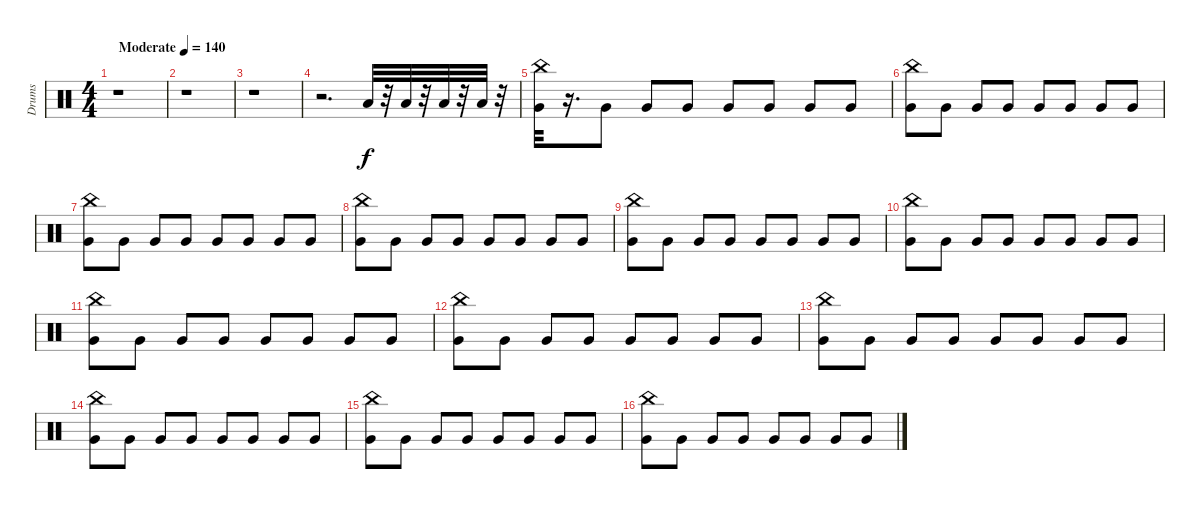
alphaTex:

\track ("Drums" "Drums") {instrument percussion}
\staff {score}
\articulation defaults
\ts (4 4)
\tempo (140 "Moderate")
\clef neutral
\ks c
r.1{dy f} |
r.1 |
r.1 |
r.2{d} "Low Tom (hit)".32 r.32 "Low Tom (hit)".32 r.32 "Low Tom (hit)".32 r.32 "Low Tom (hit)".32 r.32 |
("Very Low Tom (hit)" "China (hit)").32 r.16{d} "Very Low Tom (hit)".8 "Very Low Tom (hit)".8 "Very Low Tom (hit)".8 "Very Low Tom (hit)".8 "Very Low Tom (hit)".8 "Very Low Tom (hit)".8 "Very Low Tom (hit)".8 |
("Very Low Tom (hit)" "China (hit)").8 "Very Low Tom (hit)".8 "Very Low Tom (hit)".8 "Very Low Tom (hit)".8 "Very Low Tom (hit)".8 "Very Low Tom (hit)".8 "Very Low Tom (hit)".8 "Very Low Tom (hit)".8 |
("Very Low Tom (hit)" "China (hit)").8 "Very Low Tom (hit)".8 "Very Low Tom (hit)".8 "Very Low Tom (hit)".8 "Very Low Tom (hit)".8 "Very Low Tom (hit)".8 "Very Low Tom (hit)".8 "Very Low Tom (hit)".8 |
("Very Low Tom (hit)" "China (hit)").8 "Very Low Tom (hit)".8 "Very Low Tom (hit)".8 "Very Low Tom (hit)".8 "Very Low Tom (hit)".8 "Very Low Tom (hit)".8 "Very Low Tom (hit)".8 "Very Low Tom (hit)".8 |
("Very Low Tom (hit)" "China (hit)").8 "Very Low Tom (hit)".8 "Very Low Tom (hit)".8 "Very Low Tom (hit)".8 "Very Low Tom (hit)".8 "Very Low Tom (hit)".8 "Very Low Tom (hit)".8 "Very Low Tom (hit)".8 |
("Very Low Tom (hit)" "China (hit)").8 "Very Low Tom (hit)".8 "Very Low Tom (hit)".8 "Very Low Tom (hit)".8 "Very Low Tom (hit)".8 "Very Low Tom (hit)".8 "Very Low Tom (hit)".8 "Very Low Tom (hit)".8 |
("Very Low Tom (hit)" "China (hit)").8 "Very Low Tom (hit)".8 "Very Low Tom (hit)".8 "Very Low Tom (hit)".8 "Very Low Tom (hit)".8 "Very Low Tom (hit)".8 "Very Low Tom (hit)".8 "Very Low Tom (hit)".8 |
("Very Low Tom (hit)" "China (hit)").8 "Very Low Tom (hit)".8 "Very Low Tom (hit)".8 "Very Low Tom (hit)".8 "Very Low Tom (hit)".8 "Very Low Tom (hit)".8 "Very Low Tom (hit)".8 "Very Low Tom (hit)".8 |
("Very Low Tom (hit)" "China (hit)").8 "Very Low Tom (hit)".8 "Very Low Tom (hit)".8 "Very Low Tom (hit)".8 "Very Low Tom (hit)".8 "Very Low Tom (hit)".8 "Very Low Tom (hit)".8 "Very Low Tom (hit)".8 |
("Very Low Tom (hit)" "China (hit)").8 "Very Low Tom (hit)".8 "Very Low Tom (hit)".8 "Very Low Tom (hit)".8 "Very Low Tom (hit)".8 "Very Low Tom (hit)".8 "Very Low Tom (hit)".8 "Very Low Tom (hit)".8 |
("Very Low Tom (hit)" "China (hit)").8 "Very Low Tom (hit)".8 "Very Low Tom (hit)".8 "Very Low Tom (hit)".8 "Very Low Tom (hit)".8 "Very Low Tom (hit)".8 "Very Low Tom (hit)".8 "Very Low Tom (hit)".8 |
("Very Low Tom (hit)" "China (hit)").8 "Very Low Tom (hit)".8 "Very Low Tom (hit)".8 "Very Low Tom (hit)".8 "Very Low Tom (hit)".8 "Very Low Tom (hit)".8 "Very Low Tom (hit)".8 "Very Low Tom (hit)".8
